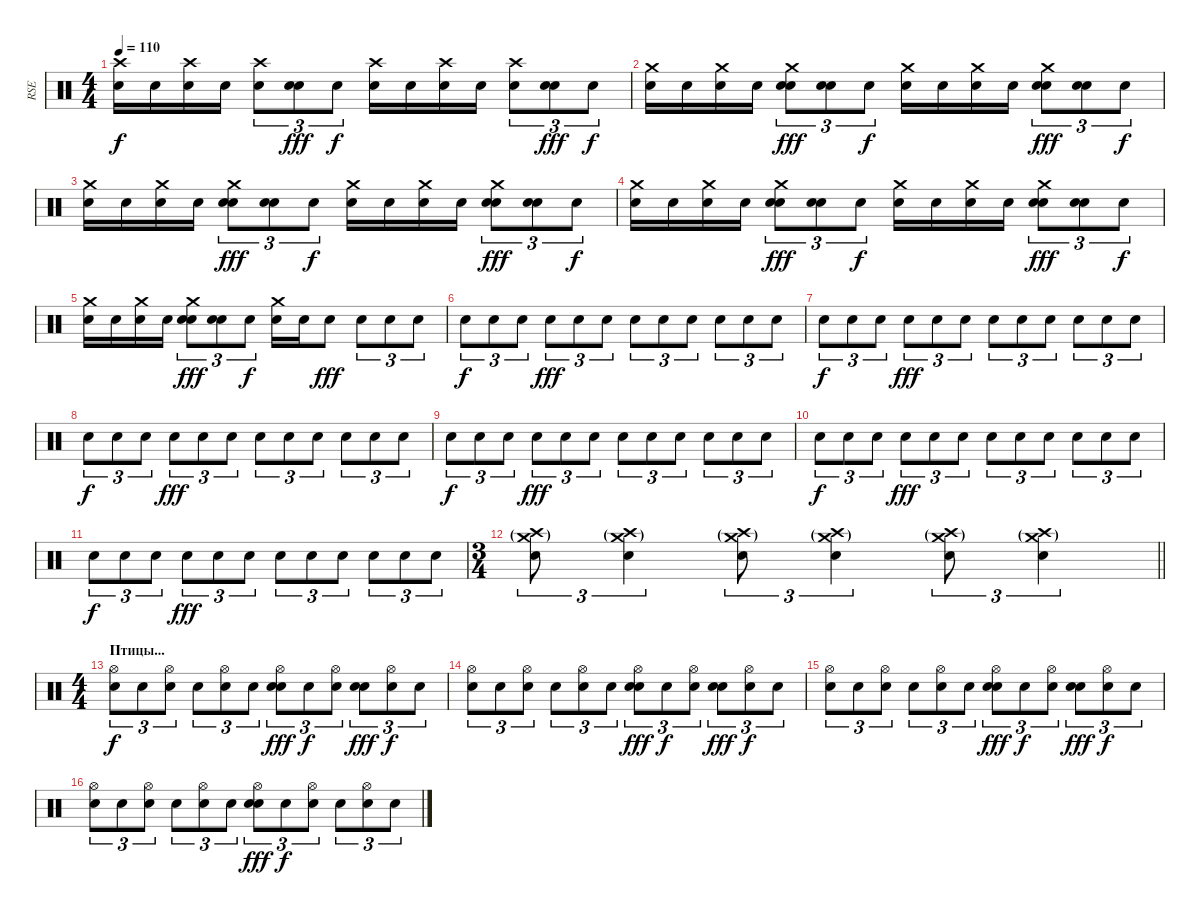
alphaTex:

\track ("RSE" "RSE") {instrument percussion}
\staff
\articulation defaults
\ts (4 4)
\tempo 110
\clef neutral
\ks c
("Crash high (hit)" "Snare (hit)").16{dy f} "Snare (hit)".16 ("Crash high (hit)" "Snare (hit)").16 "Snare (hit)".16 ("Crash high (hit)" "Snare (hit)").8{tu (3 2)} ("Electric Snare (hit)" "Snare (hit)").8{tu (3 2) dy fff} "Snare (hit)".8{tu (3 2) dy f} ("Crash high (hit)" "Snare (hit)").16 "Snare (hit)".16 ("Crash high (hit)" "Snare (hit)").16 "Snare (hit)".16 ("Crash high (hit)" "Snare (hit)").8{tu (3 2)} ("Electric Snare (hit)" "Snare (hit)").8{tu (3 2) dy fff} "Snare (hit)".8{tu (3 2) dy f} |
("Crash medium (hit)" "Snare (hit)").16 "Snare (hit)".16 ("Crash medium (hit)" "Snare (hit)").16 "Snare (hit)".16 ("Crash medium (hit)" "Electric Snare (hit)" "Snare (hit)").8{tu (3 2) dy fff} ("Electric Snare (hit)" "Snare (hit)").8{tu (3 2)} "Snare (hit)".8{tu (3 2) dy f} ("Crash medium (hit)" "Snare (hit)").16 "Snare (hit)".16 ("Crash medium (hit)" "Snare (hit)").16 "Snare (hit)".16 ("Crash medium (hit)" "Electric Snare (hit)" "Snare (hit)").8{tu (3 2) dy fff} ("Electric Snare (hit)" "Snare (hit)").8{tu (3 2)} "Snare (hit)".8{tu (3 2) dy f} |
("Crash medium (hit)" "Snare (hit)").16 "Snare (hit)".16 ("Crash medium (hit)" "Snare (hit)").16 "Snare (hit)".16 ("Crash medium (hit)" "Electric Snare (hit)" "Snare (hit)").8{tu (3 2) dy fff} ("Electric Snare (hit)" "Snare (hit)").8{tu (3 2)} "Snare (hit)".8{tu (3 2) dy f} ("Crash medium (hit)" "Snare (hit)").16 "Snare (hit)".16 ("Crash medium (hit)" "Snare (hit)").16 "Snare (hit)".16 ("Crash medium (hit)" "Electric Snare (hit)" "Snare (hit)").8{tu (3 2) dy fff} ("Electric Snare (hit)" "Snare (hit)").8{tu (3 2)} "Snare (hit)".8{tu (3 2) dy f} |
("Crash medium (hit)" "Snare (hit)").16 "Snare (hit)".16 ("Crash medium (hit)" "Snare (hit)").16 "Snare (hit)".16 ("Crash medium (hit)" "Electric Snare (hit)" "Snare (hit)").8{tu (3 2) dy fff} ("Electric Snare (hit)" "Snare (hit)").8{tu (3 2)} "Snare (hit)".8{tu (3 2) dy f} ("Crash medium (hit)" "Snare (hit)").16 "Snare (hit)".16 ("Crash medium (hit)" "Snare (hit)").16 "Snare (hit)".16 ("Crash medium (hit)" "Electric Snare (hit)" "Snare (hit)").8{tu (3 2) dy fff} ("Electric Snare (hit)" "Snare (hit)").8{tu (3 2)} "Snare (hit)".8{tu (3 2) dy f} |
("Crash medium (hit)" "Snare (hit)").16 "Snare (hit)".16 ("Crash medium (hit)" "Snare (hit)").16 "Snare (hit)".16 ("Crash medium (hit)" "Electric Snare (hit)" "Snare (hit)").8{tu (3 2) dy fff} ("Electric Snare (hit)" "Snare (hit)").8{tu (3 2)} "Snare (hit)".8{tu (3 2) dy f} ("Crash medium (hit)" "Snare (hit)").16 "Snare (hit)".16 "Snare (hit)".8{dy fff} "Snare (hit)".8{tu (3 2)} "Snare (hit)".8{tu (3 2)} "Snare (hit)".8{tu (3 2)} |
"Snare (hit)".8{tu (3 2) dy f} "Snare (hit)".8{tu (3 2)} "Snare (hit)".8{tu (3 2)} "Snare (hit)".8{tu (3 2) dy fff} "Snare (hit)".8{tu (3 2)} "Snare (hit)".8{tu (3 2)} "Snare (hit)".8{tu (3 2)} "Snare (hit)".8{tu (3 2)} "Snare (hit)".8{tu (3 2)} "Snare (hit)".8{tu (3 2)} "Snare (hit)".8{tu (3 2)} "Snare (hit)".8{tu (3 2)} |
"Snare (hit)".8{tu (3 2) dy f} "Snare (hit)".8{tu (3 2)} "Snare (hit)".8{tu (3 2)} "Snare (hit)".8{tu (3 2) dy fff} "Snare (hit)".8{tu (3 2)} "Snare (hit)".8{tu (3 2)} "Snare (hit)".8{tu (3 2)} "Snare (hit)".8{tu (3 2)} "Snare (hit)".8{tu (3 2)} "Snare (hit)".8{tu (3 2)} "Snare (hit)".8{tu (3 2)} "Snare (hit)".8{tu (3 2)} |
"Snare (hit)".8{tu (3 2) dy f} "Snare (hit)".8{tu (3 2)} "Snare (hit)".8{tu (3 2)} "Snare (hit)".8{tu (3 2) dy fff} "Snare (hit)".8{tu (3 2)} "Snare (hit)".8{tu (3 2)} "Snare (hit)".8{tu (3 2)} "Snare (hit)".8{tu (3 2)} "Snare (hit)".8{tu (3 2)} "Snare (hit)".8{tu (3 2)} "Snare (hit)".8{tu (3 2)} "Snare (hit)".8{tu (3 2)} |
"Snare (hit)".8{tu (3 2) dy f} "Snare (hit)".8{tu (3 2)} "Snare (hit)".8{tu (3 2)} "Snare (hit)".8{tu (3 2) dy fff} "Snare (hit)".8{tu (3 2)} "Snare (hit)".8{tu (3 2)} "Snare (hit)".8{tu (3 2)} "Snare (hit)".8{tu (3 2)} "Snare (hit)".8{tu (3 2)} "Snare (hit)".8{tu (3 2)} "Snare (hit)".8{tu (3 2)} "Snare (hit)".8{tu (3 2)} |
"Snare (hit)".8{tu (3 2) dy f} "Snare (hit)".8{tu (3 2)} "Snare (hit)".8{tu (3 2)} "Snare (hit)".8{tu (3 2) dy fff} "Snare (hit)".8{tu (3 2)} "Snare (hit)".8{tu (3 2)} "Snare (hit)".8{tu (3 2)} "Snare (hit)".8{tu (3 2)} "Snare (hit)".8{tu (3 2)} "Snare (hit)".8{tu (3 2)} "Snare (hit)".8{tu (3 2)} "Snare (hit)".8{tu (3 2)} |
"Snare (hit)".8{tu (3 2) dy f} "Snare (hit)".8{tu (3 2)} "Snare (hit)".8{tu (3 2)} "Snare (hit)".8{tu (3 2) dy fff} "Snare (hit)".8{tu (3 2)} "Snare (hit)".8{tu (3 2)} "Snare (hit)".8{tu (3 2)} "Snare (hit)".8{tu (3 2)} "Snare (hit)".8{tu (3 2)} "Snare (hit)".8{tu (3 2)} "Snare (hit)".8{tu (3 2)} "Snare (hit)".8{tu (3 2)} |
\ts (3 4)
\barLineRight lightlight
("Crash high (hit)"{g} "Crash medium (hit)"{g} "Snare (hit)").8{tu (3 2)} ("Crash high (hit)"{g} "Crash medium (hit)"{g} "Snare (hit)").4{tu (3 2)} ("Crash high (hit)"{g} "Crash medium (hit)"{g} "Snare (hit)").8{tu (3 2)} ("Crash high (hit)"{g} "Crash medium (hit)"{g} "Snare (hit)").4{tu (3 2)} ("Crash high (hit)"{g} "Crash medium (hit)"{g} "Snare (hit)").8{tu (3 2)} ("Crash high (hit)"{g} "Crash medium (hit)"{g} "Snare (hit)").4{tu (3 2)} |
\ts (4 4)
\section ("" "Птицы...")
("Hi-Hat (open)" "Snare (hit)").8{tu (3 2) dy f} "Snare (hit)".8{tu (3 2)} ("Hi-Hat (open)" "Snare (hit)").8{tu (3 2)} "Snare (hit)".8{tu (3 2)} ("Hi-Hat (open)" "Snare (hit)").8{tu (3 2)} "Snare (hit)".8{tu (3 2)} ("Hi-Hat (open)" "Electric Snare (hit)" "Snare (hit)").8{tu (3 2) dy fff} "Snare (hit)".8{tu (3 2) dy f} ("Hi-Hat (open)" "Snare (hit)").8{tu (3 2)} ("Electric Snare (hit)" "Snare (hit)").8{tu (3 2) dy fff} ("Hi-Hat (open)" "Snare (hit)").8{tu (3 2) dy f} "Snare (hit)".8{tu (3 2)} |
("Hi-Hat (open)" "Snare (hit)").8{tu (3 2)} "Snare (hit)".8{tu (3 2)} ("Hi-Hat (open)" "Snare (hit)").8{tu (3 2)} "Snare (hit)".8{tu (3 2)} ("Hi-Hat (open)" "Snare (hit)").8{tu (3 2)} "Snare (hit)".8{tu (3 2)} ("Hi-Hat (open)" "Electric Snare (hit)" "Snare (hit)").8{tu (3 2) dy fff} "Snare (hit)".8{tu (3 2) dy f} ("Hi-Hat (open)" "Snare (hit)").8{tu (3 2)} ("Electric Snare (hit)" "Snare (hit)").8{tu (3 2) dy fff} ("Hi-Hat (open)" "Snare (hit)").8{tu (3 2) dy f} "Snare (hit)".8{tu (3 2)} |
("Hi-Hat (open)" "Snare (hit)").8{tu (3 2)} "Snare (hit)".8{tu (3 2)} ("Hi-Hat (open)" "Snare (hit)").8{tu (3 2)} "Snare (hit)".8{tu (3 2)} ("Hi-Hat (open)" "Snare (hit)").8{tu (3 2)} "Snare (hit)".8{tu (3 2)} ("Hi-Hat (open)" "Electric Snare (hit)" "Snare (hit)").8{tu (3 2) dy fff} "Snare (hit)".8{tu (3 2) dy f} ("Hi-Hat (open)" "Snare (hit)").8{tu (3 2)} ("Electric Snare (hit)" "Snare (hit)").8{tu (3 2) dy fff} ("Hi-Hat (open)" "Snare (hit)").8{tu (3 2) dy f} "Snare (hit)".8{tu (3 2)} |
("Hi-Hat (open)" "Snare (hit)").8{tu (3 2)} "Snare (hit)".8{tu (3 2)} ("Hi-Hat (open)" "Snare (hit)").8{tu (3 2)} "Snare (hit)".8{tu (3 2)} ("Hi-Hat (open)" "Snare (hit)").8{tu (3 2)} "Snare (hit)".8{tu (3 2)} ("Hi-Hat (open)" "Electric Snare (hit)" "Snare (hit)").8{tu (3 2) dy fff} "Snare (hit)".8{tu (3 2) dy f} ("Hi-Hat (open)" "Snare (hit)").8{tu (3 2)} "Snare (hit)".8{tu (3 2)} ("Hi-Hat (open)" "Snare (hit)").8{tu (3 2)} "Snare (hit)".8{tu (3 2)}
